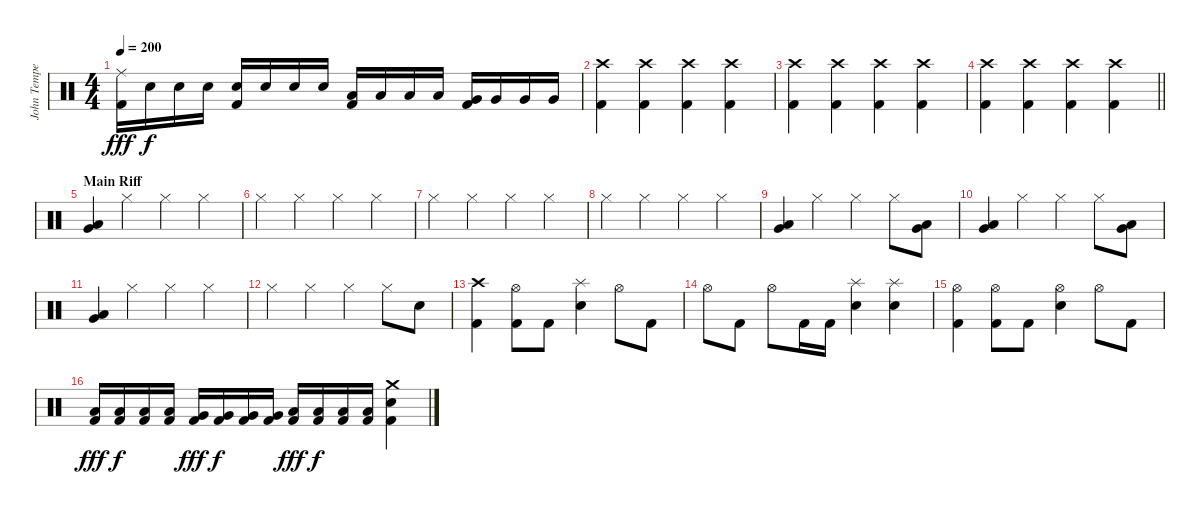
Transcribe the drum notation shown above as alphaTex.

\track ("John Tempesta" "John Tempe") {instrument percussion}
\staff {score}
\articulation defaults
\ts (4 4)
\tempo 200
\clef neutral
\ks c
("Ride (middle)" "Kick (hit) 2").16{dy fff} "Electric Snare (hit)".16{dy f} "Electric Snare (hit)".16 "Electric Snare (hit)".16 ("Electric Snare (hit)" "Kick (hit) 2").16 "Electric Snare (hit)".16 "Electric Snare (hit)".16 "Electric Snare (hit)".16 ("Low Tom (hit)" "Kick (hit) 2").16 "Low Tom (hit)".16 "Low Tom (hit)".16 "Low Tom (hit)".16 ("Very Low Tom (hit)" "Kick (hit) 2").16 "Very Low Tom (hit)".16 "Very Low Tom (hit)".16 "Very Low Tom (hit)".16 |
("Crash high (hit)" "Kick (hit) 2").4 ("Crash high (hit)" "Kick (hit) 2").4 ("Crash high (hit)" "Kick (hit) 2").4 ("Crash high (hit)" "Kick (hit) 2").4 |
("Crash high (hit)" "Kick (hit) 2").4 ("Crash high (hit)" "Kick (hit) 2").4 ("Crash high (hit)" "Kick (hit) 2").4 ("Crash high (hit)" "Kick (hit) 2").4 |
\barLineRight lightlight
("Crash high (hit)" "Kick (hit) 2").4 ("Crash high (hit)" "Kick (hit) 2").4 ("Crash high (hit)" "Kick (hit) 2").4 ("Crash high (hit)" "Kick (hit) 2").4 |
\section ("" "Main Riff")
("Low Floor Tom (hit)" "Very Low Tom (hit)").4 "Hi-Hat (closed)".4 "Hi-Hat (closed)".4 "Hi-Hat (closed)".4 |
"Hi-Hat (closed)".4 "Hi-Hat (closed)".4 "Hi-Hat (closed)".4 "Hi-Hat (closed)".4 |
"Hi-Hat (closed)".4 "Hi-Hat (closed)".4 "Hi-Hat (closed)".4 "Hi-Hat (closed)".4 |
"Hi-Hat (closed)".4 "Hi-Hat (closed)".4 "Hi-Hat (closed)".4 "Hi-Hat (closed)".4 |
("Low Floor Tom (hit)" "Very Low Tom (hit)").4 "Hi-Hat (closed)".4 "Hi-Hat (closed)".4 "Hi-Hat (closed)".8 ("Low Floor Tom (hit)" "Very Low Tom (hit)").8 |
("Low Floor Tom (hit)" "Very Low Tom (hit)").4 "Hi-Hat (closed)".4 "Hi-Hat (closed)".4 "Hi-Hat (closed)".8 ("Low Floor Tom (hit)" "Very Low Tom (hit)").8 |
("Low Floor Tom (hit)" "Very Low Tom (hit)").4 "Hi-Hat (closed)".4 "Hi-Hat (closed)".4 "Hi-Hat (closed)".4 |
"Hi-Hat (closed)".4 "Hi-Hat (closed)".4 "Hi-Hat (closed)".4 "Hi-Hat (closed)".8 "Electric Snare (hit)".8 |
("Crash high (hit)" "Kick (hit) 2").4 ("Hi-Hat (open)" "Kick (hit) 2").8 "Kick (hit) 2".8 ("Electric Snare (hit)" "Splash (hit)").4 "Hi-Hat (open)".8 "Kick (hit) 2".8 |
"Hi-Hat (open)".8 "Kick (hit) 2".8 "Hi-Hat (open)".8 "Kick (hit) 2".16 "Kick (hit) 2".16 ("Electric Snare (hit)" "Splash (hit)").4 ("Electric Snare (hit)" "Splash (hit)").4 |
("Hi-Hat (open)" "Kick (hit) 2").4 ("Hi-Hat (open)" "Kick (hit) 2").8 "Kick (hit) 2".8 ("Electric Snare (hit)" "Hi-Hat (open)").4 "Hi-Hat (open)".8 "Kick (hit) 2".8 |
("Low Tom (hit)" "Kick (hit) 2").16{dy fff} ("Low Tom (hit)" "Kick (hit) 2").16{dy f} ("Low Tom (hit)" "Kick (hit) 2").16 ("Low Tom (hit)" "Kick (hit) 2").16 ("Very Low Tom (hit)" "Kick (hit) 2").16{dy fff} ("Very Low Tom (hit)" "Kick (hit) 2").16{dy f} ("Very Low Tom (hit)" "Kick (hit) 2").16 ("Very Low Tom (hit)" "Kick (hit) 2").16 ("Low Floor Tom (hit)" "Kick (hit) 2").16{dy fff} ("Low Floor Tom (hit)" "Kick (hit) 2").16{dy f} ("Low Floor Tom (hit)" "Kick (hit) 2").16 ("Low Floor Tom (hit)" "Kick (hit) 2").16 ("Electric Snare (hit)" "Crash medium (hit)" "Kick (hit) 2").4
